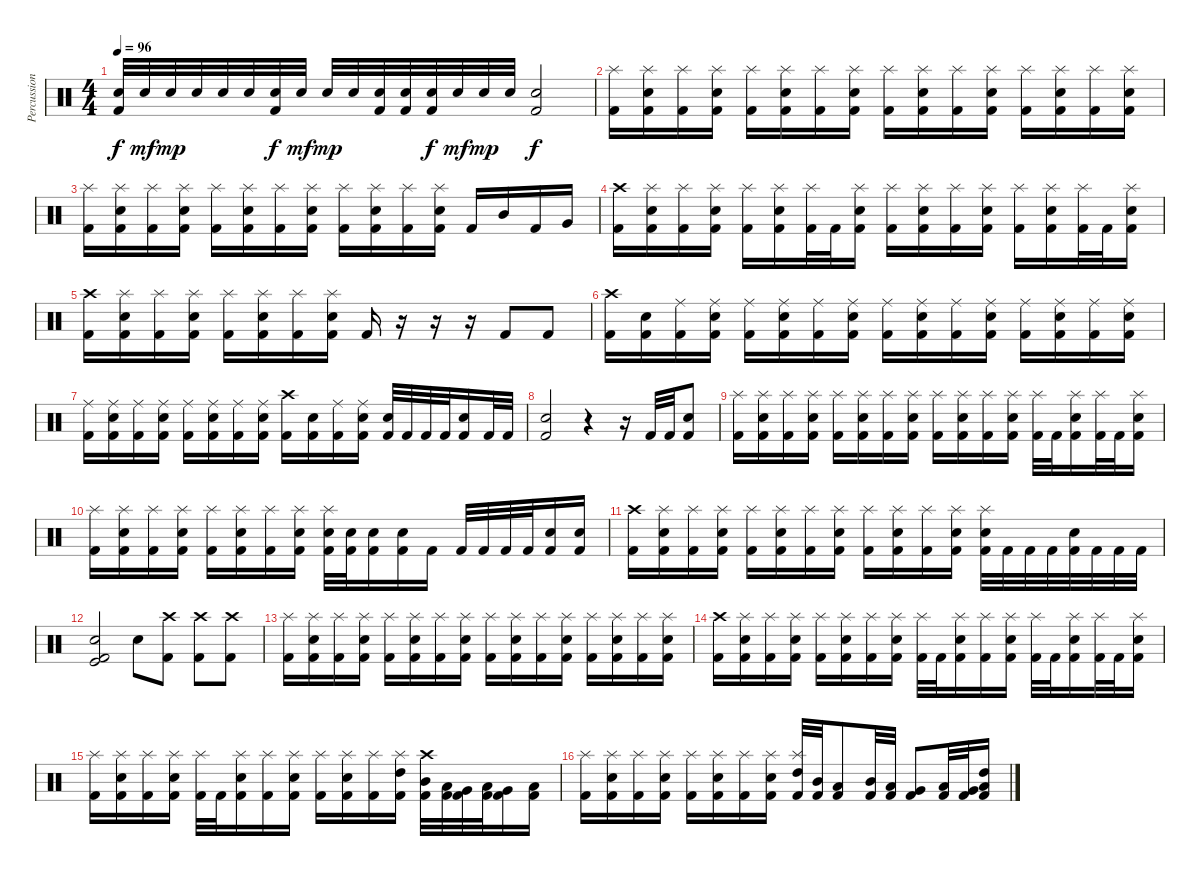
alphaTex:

\track ("Percussion" "Percussion") {instrument percussion}
\staff {score}
\articulation defaults
\ts (4 4)
\tempo 96
\clef neutral
\ks c
("Snare (hit) 2" "Kick (hit) 2").32{dy f} "Snare (hit) 2".32{dy mf} "Snare (hit) 2".32{dy mp} "Snare (hit) 2".32 "Snare (hit) 2".32 "Snare (hit) 2".32 ("Snare (hit) 2" "Kick (hit) 2").32{dy f} "Snare (hit) 2".32{dy mf} "Snare (hit) 2".32{dy mp} "Snare (hit) 2".32 ("Snare (hit) 2" "Kick (hit) 2").32 ("Snare (hit) 2" "Kick (hit) 2").32 ("Snare (hit) 2" "Kick (hit) 2").32{dy f} "Snare (hit) 2".32{dy mf} "Snare (hit) 2".32{dy mp} "Snare (hit) 2".32 ("Snare (hit) 2" "Kick (hit) 2").2{dy f} |
("Splash (hit)" "Kick (hit) 2").16 ("Splash (hit)" "Snare (hit) 2" "Kick (hit) 2").16 ("Splash (hit)" "Kick (hit) 2").16 ("Splash (hit)" "Snare (hit) 2" "Kick (hit) 2").16 ("Splash (hit)" "Kick (hit) 2").16 ("Splash (hit)" "Snare (hit) 2" "Kick (hit) 2").16 ("Splash (hit)" "Kick (hit) 2").16 ("Splash (hit)" "Snare (hit) 2" "Kick (hit) 2").16 ("Splash (hit)" "Kick (hit) 2").16 ("Splash (hit)" "Snare (hit) 2" "Kick (hit) 2").16 ("Splash (hit)" "Kick (hit) 2").16 ("Splash (hit)" "Snare (hit) 2" "Kick (hit) 2").16 ("Splash (hit)" "Kick (hit) 2").16 ("Splash (hit)" "Snare (hit) 2" "Kick (hit) 2").16 ("Splash (hit)" "Kick (hit) 2").16 ("Splash (hit)" "Snare (hit) 2" "Kick (hit) 2").16 |
("Splash (hit)" "Kick (hit) 2").16 ("Splash (hit)" "Snare (hit) 2" "Kick (hit) 2").16 ("Splash (hit)" "Kick (hit) 2").16 ("Splash (hit)" "Snare (hit) 2" "Kick (hit) 2").16 ("Splash (hit)" "Kick (hit) 2").16 ("Splash (hit)" "Snare (hit) 2" "Kick (hit) 2").16 ("Splash (hit)" "Kick (hit) 2").16 ("Splash (hit)" "Snare (hit) 2" "Kick (hit) 2").16 ("Splash (hit)" "Kick (hit) 2").16 ("Splash (hit)" "Snare (hit) 2" "Kick (hit) 2").16 ("Splash (hit)" "Kick (hit) 2").16 ("Splash (hit)" "Snare (hit) 2" "Kick (hit) 2").16 "Kick (hit) 2".16 "Mid Tom (hit)".16 "Kick (hit) 2".16 "Very Low Tom (hit)".16 |
("Crash high (hit)" "Kick (hit) 2").16 ("Splash (hit)" "Snare (hit) 2" "Kick (hit) 2").16 ("Splash (hit)" "Kick (hit) 2").16 ("Splash (hit)" "Snare (hit) 2" "Kick (hit) 2").16 ("Splash (hit)" "Kick (hit) 2").16 ("Splash (hit)" "Snare (hit) 2" "Kick (hit) 2").16 ("Splash (hit)" "Kick (hit) 2").32 "Kick (hit) 2".32 ("Splash (hit)" "Snare (hit) 2" "Kick (hit) 2").16 ("Splash (hit)" "Kick (hit) 2").16 ("Splash (hit)" "Snare (hit) 2" "Kick (hit) 2").16 ("Splash (hit)" "Kick (hit) 2").16 ("Splash (hit)" "Snare (hit) 2" "Kick (hit) 2").16 ("Splash (hit)" "Kick (hit) 2").16 ("Splash (hit)" "Snare (hit) 2" "Kick (hit) 2").16 ("Splash (hit)" "Kick (hit) 2").32 "Kick (hit) 2".32 ("Splash (hit)" "Snare (hit) 2" "Kick (hit) 2").16 |
("Crash high (hit)" "Kick (hit) 2").16 ("Splash (hit)" "Snare (hit) 2" "Kick (hit) 2").16 ("Splash (hit)" "Kick (hit) 2").16 ("Splash (hit)" "Snare (hit) 2" "Kick (hit) 2").16 ("Splash (hit)" "Kick (hit) 2").16 ("Splash (hit)" "Snare (hit) 2" "Kick (hit) 2").16 ("Splash (hit)" "Kick (hit) 2").16 ("Splash (hit)" "Snare (hit) 2" "Kick (hit) 2").16 "Kick (hit) 2".16 r.16 r.16 r.16 "Kick (hit) 2".8 "Kick (hit) 2".8 |
("Crash high (hit)" "Kick (hit) 2").16 ("Snare (hit) 2" "Kick (hit) 2").16 ("Ride (middle)" "Kick (hit) 2").16 ("Ride (middle)" "Snare (hit) 2" "Kick (hit) 2").16 ("Ride (middle)" "Kick (hit) 2").16 ("Ride (middle)" "Snare (hit) 2" "Kick (hit) 2").16 ("Ride (middle)" "Kick (hit) 2").16 ("Ride (middle)" "Snare (hit) 2" "Kick (hit) 2").16 ("Ride (middle)" "Kick (hit) 2").16 ("Ride (middle)" "Snare (hit) 2" "Kick (hit) 2").16 ("Ride (middle)" "Kick (hit) 2").16 ("Ride (middle)" "Snare (hit) 2" "Kick (hit) 2").16 ("Ride (middle)" "Kick (hit) 2").16 ("Ride (middle)" "Snare (hit) 2" "Kick (hit) 2").16 ("Ride (middle)" "Kick (hit) 2").16 ("Ride (middle)" "Snare (hit) 2" "Kick (hit) 2").16 |
("Ride (middle)" "Kick (hit) 2").16 ("Ride (middle)" "Snare (hit) 2" "Kick (hit) 2").16 ("Ride (middle)" "Kick (hit) 2").16 ("Ride (middle)" "Snare (hit) 2" "Kick (hit) 2").16 ("Ride (middle)" "Kick (hit) 2").16 ("Ride (middle)" "Snare (hit) 2" "Kick (hit) 2").16 ("Ride (middle)" "Kick (hit) 2").16 ("Ride (middle)" "Snare (hit) 2" "Kick (hit) 2").16 ("Crash high (hit)" "Kick (hit) 2").16 ("Snare (hit) 2" "Kick (hit) 2").16 ("Ride (middle)" "Kick (hit) 2").16 ("Ride (middle)" "Snare (hit) 2" "Kick (hit) 2").16 ("Snare (hit) 2" "Kick (hit) 2").32 "Kick (hit) 2".32 "Kick (hit) 2".32 "Kick (hit) 2".32 ("Snare (hit) 2" "Kick (hit) 2").16 "Kick (hit) 2".32 "Kick (hit) 2".32 |
("Snare (hit) 2" "Kick (hit) 2").2 r.4 r.16 "Kick (hit) 2".32 "Kick (hit) 2".32 ("Snare (hit) 2" "Kick (hit) 2").8 |
("Splash (hit)" "Kick (hit) 2").16 ("Splash (hit)" "Snare (hit) 2" "Kick (hit) 2").16 ("Splash (hit)" "Kick (hit) 2").16 ("Splash (hit)" "Snare (hit) 2" "Kick (hit) 2").16 ("Splash (hit)" "Kick (hit) 2").16 ("Splash (hit)" "Snare (hit) 2" "Kick (hit) 2").16 ("Splash (hit)" "Kick (hit) 2").16 ("Splash (hit)" "Snare (hit) 2" "Kick (hit) 2").16 ("Splash (hit)" "Kick (hit) 2").16 ("Splash (hit)" "Snare (hit) 2" "Kick (hit) 2").16 ("Splash (hit)" "Kick (hit) 2").16 ("Splash (hit)" "Snare (hit) 2" "Kick (hit) 2").16 ("Splash (hit)" "Kick (hit) 2").32 "Kick (hit) 2".32 ("Splash (hit)" "Snare (hit) 2" "Kick (hit) 2").16 ("Splash (hit)" "Kick (hit) 2").32 "Kick (hit) 2".32 ("Splash (hit)" "Snare (hit) 2" "Kick (hit) 2").16 |
("Splash (hit)" "Kick (hit) 2").16 ("Splash (hit)" "Snare (hit) 2" "Kick (hit) 2").16 ("Splash (hit)" "Kick (hit) 2").16 ("Splash (hit)" "Snare (hit) 2" "Kick (hit) 2").16 ("Splash (hit)" "Kick (hit) 2").16 ("Splash (hit)" "Snare (hit) 2" "Kick (hit) 2").16 ("Splash (hit)" "Kick (hit) 2").16 ("Splash (hit)" "Snare (hit) 2" "Kick (hit) 2").16 ("Splash (hit)" "Snare (hit) 2" "Kick (hit) 2").32 ("Snare (hit) 2" "Kick (hit) 2").32 ("Snare (hit) 2" "Kick (hit) 2").16 ("Snare (hit) 2" "Kick (hit) 2").16 "Kick (hit) 2".16 "Kick (hit) 2".32 "Kick (hit) 2".32 "Kick (hit) 2".32 "Kick (hit) 2".32 ("Snare (hit) 2" "Kick (hit) 2").16 ("Snare (hit) 2" "Kick (hit) 2").16 |
("Crash high (hit)" "Kick (hit) 2").16 ("Splash (hit)" "Snare (hit) 2" "Kick (hit) 2").16 ("Splash (hit)" "Kick (hit) 2").16 ("Splash (hit)" "Snare (hit) 2" "Kick (hit) 2").16 ("Splash (hit)" "Kick (hit) 2").16 ("Splash (hit)" "Snare (hit) 2" "Kick (hit) 2").16 ("Splash (hit)" "Kick (hit) 2").16 ("Splash (hit)" "Snare (hit) 2" "Kick (hit) 2").16 ("Splash (hit)" "Kick (hit) 2").16 ("Splash (hit)" "Snare (hit) 2" "Kick (hit) 2").16 ("Splash (hit)" "Kick (hit) 2").16 ("Splash (hit)" "Snare (hit) 2" "Kick (hit) 2").16 ("Splash (hit)" "Snare (hit) 2" "Kick (hit) 2").32 "Kick (hit) 2".32 "Kick (hit) 2".32 "Kick (hit) 2".32 ("Snare (hit) 2" "Kick (hit) 2").32 "Kick (hit) 2".32 "Kick (hit) 2".32 "Kick (hit) 2".32 |
("Kick (hit) 2" "Snare (hit) 2" "Kick (hit)").2 "Snare (hit) 2".8 ("Crash high (hit)" "Kick (hit) 2").8 ("Crash high (hit)" "Kick (hit) 2").8 ("Crash high (hit)" "Kick (hit) 2").8 |
("Splash (hit)" "Kick (hit) 2").16 ("Splash (hit)" "Snare (hit) 2" "Kick (hit) 2").16 ("Splash (hit)" "Kick (hit) 2").16 ("Splash (hit)" "Snare (hit) 2" "Kick (hit) 2").16 ("Splash (hit)" "Kick (hit) 2").16 ("Splash (hit)" "Snare (hit) 2" "Kick (hit) 2").16 ("Splash (hit)" "Kick (hit) 2").16 ("Splash (hit)" "Snare (hit) 2" "Kick (hit) 2").16 ("Splash (hit)" "Kick (hit) 2").16 ("Splash (hit)" "Snare (hit) 2" "Kick (hit) 2").16 ("Splash (hit)" "Kick (hit) 2").16 ("Splash (hit)" "Snare (hit) 2" "Kick (hit) 2").16 ("Splash (hit)" "Kick (hit) 2").16 ("Splash (hit)" "Snare (hit) 2" "Kick (hit) 2").16 ("Splash (hit)" "Kick (hit) 2").16 ("Splash (hit)" "Snare (hit) 2" "Kick (hit) 2").16 |
("Crash high (hit)" "Kick (hit) 2").16 ("Splash (hit)" "Snare (hit) 2" "Kick (hit) 2").16 ("Splash (hit)" "Kick (hit) 2").16 ("Splash (hit)" "Snare (hit) 2" "Kick (hit) 2").16 ("Splash (hit)" "Kick (hit) 2").16 ("Splash (hit)" "Snare (hit) 2" "Kick (hit) 2").16 ("Splash (hit)" "Kick (hit) 2").16 ("Splash (hit)" "Snare (hit) 2" "Kick (hit) 2").16 ("Splash (hit)" "Kick (hit) 2").32 "Kick (hit) 2".32 ("Splash (hit)" "Snare (hit) 2" "Kick (hit) 2").16 ("Splash (hit)" "Kick (hit) 2").16 ("Splash (hit)" "Snare (hit) 2" "Kick (hit) 2").16 ("Splash (hit)" "Kick (hit) 2").32 "Kick (hit) 2".32 ("Splash (hit)" "Snare (hit) 2" "Kick (hit) 2").16 ("Splash (hit)" "Kick (hit) 2").32 "Kick (hit) 2".32 ("Splash (hit)" "Snare (hit) 2" "Kick (hit) 2").16 |
("Splash (hit)" "Kick (hit) 2").16 ("Splash (hit)" "Snare (hit) 2" "Kick (hit) 2").16 ("Splash (hit)" "Kick (hit) 2").16 ("Splash (hit)" "Snare (hit) 2" "Kick (hit) 2").16 ("Splash (hit)" "Kick (hit) 2").32 "Kick (hit) 2".32 ("Splash (hit)" "Snare (hit) 2" "Kick (hit) 2").16 ("Splash (hit)" "Kick (hit) 2").16 ("Splash (hit)" "Snare (hit) 2" "Kick (hit) 2").16 ("Splash (hit)" "Kick (hit) 2").16 ("Splash (hit)" "Snare (hit) 2" "Kick (hit) 2").16 ("Splash (hit)" "Kick (hit) 2").16 ("Splash (hit)" "High Tom (hit)" "Kick (hit) 2").16 ("Crash high (hit)" "Mid Tom (hit)" "Kick (hit) 2").32 ("Low Tom (hit)" "Kick (hit) 2").32 ("Very Low Tom (hit)" "Kick (hit) 2").32 ("Low Tom (hit)" "Kick (hit) 2").32 ("Very Low Tom (hit)" "Kick (hit) 2").16 ("Low Floor Tom (hit)" "Kick (hit) 2").16 |
("Splash (hit)" "Kick (hit) 2").16 ("Splash (hit)" "Snare (hit) 2" "Kick (hit) 2").16 ("Splash (hit)" "Kick (hit) 2").16 ("Splash (hit)" "Snare (hit) 2" "Kick (hit) 2").16 ("Splash (hit)" "Kick (hit) 2").16 ("Splash (hit)" "Snare (hit) 2" "Kick (hit) 2").16 ("Splash (hit)" "Kick (hit) 2").16 ("Splash (hit)" "Snare (hit) 2" "Kick (hit) 2").16 ("Splash (hit)" "High Tom (hit)" "Kick (hit) 2").32 ("Mid Tom (hit)" "Kick (hit) 2").32 ("Low Tom (hit)" "Kick (hit) 2").8 ("Mid Tom (hit)" "Kick (hit) 2").32 ("Low Tom (hit)" "Kick (hit) 2").32 ("Very Low Tom (hit)" "Kick (hit) 2").8 ("Low Tom (hit)" "Kick (hit) 2").32 ("Very Low Tom (hit)" "Kick (hit) 2").32 ("High Tom (hit)" "Low Floor Tom (hit)" "Kick (hit) 2").16
